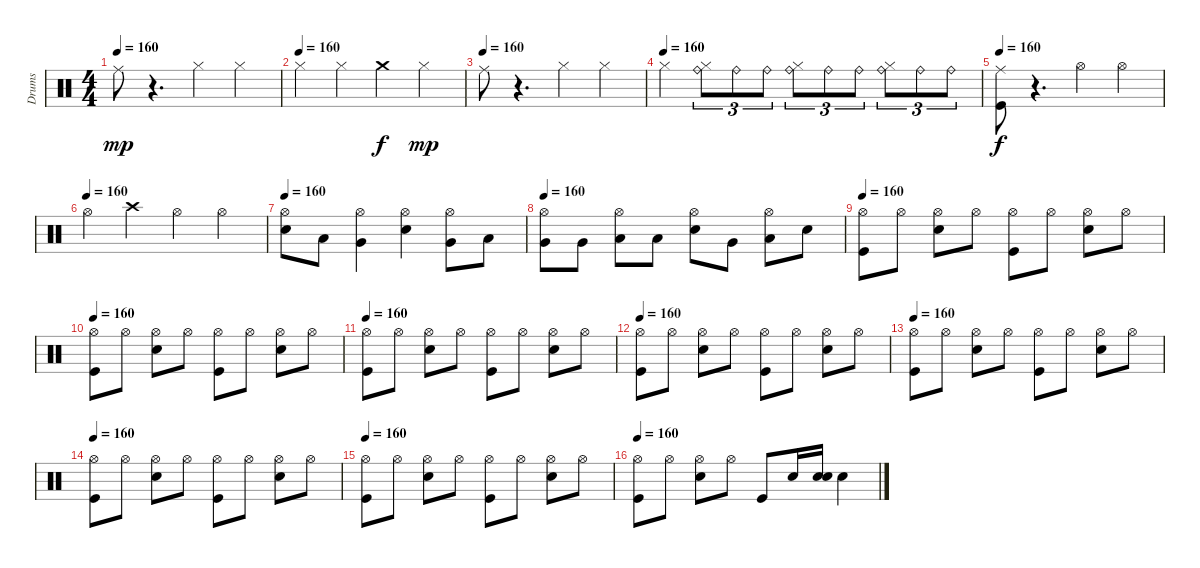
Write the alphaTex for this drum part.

\track ("Drums" "Drums") {instrument percussion}
\staff {score}
\articulation defaults
\ts (4 4)
\tempo 160
\clef neutral
\ks c "Ride (middle)".8{dy mp}
r.4{d} "Hi-Hat (closed)".4 "Hi-Hat (closed)".4 |
\tempo (160)
"Hi-Hat (closed)".4 "Hi-Hat (closed)".4 "Crash medium (hit)".4{dy f} "Hi-Hat (closed)".4{dy mp} |
\tempo (160)
"Ride (middle)".8 r.4{d} "Hi-Hat (closed)".4 "Hi-Hat (closed)".4 |
\tempo (160)
"Hi-Hat (closed)".4 ("Ride (bell)" "Hi-Hat (closed)").8{tu (3 2)} "Ride (bell)".8{tu (3 2)} "Ride (bell)".8{tu (3 2)} ("Ride (bell)" "Hi-Hat (closed)").8{tu (3 2)} "Ride (bell)".8{tu (3 2)} "Ride (bell)".8{tu (3 2)} ("Ride (bell)" "Hi-Hat (closed)").8{tu (3 2)} "Ride (bell)".8{tu (3 2)} "Ride (bell)".8{tu (3 2)} |
\tempo 160
("Ride (middle)" "Kick (hit)").8{dy f} r.4{d} "Hi-Hat (open)".4 "Hi-Hat (open)".4 |
\tempo (160)
"Hi-Hat (open)".4 "Crash high (hit)".4 "Hi-Hat (open)".4 "Hi-Hat (open)".4 |
\tempo 160
("Snare (hit) 2" "Hi-Hat (open)").8 "Low Tom (hit)".8 ("Very Low Tom (hit)" "Hi-Hat (open)").4 ("Snare (hit) 2" "Hi-Hat (open)").4 ("Very Low Tom (hit)" "Hi-Hat (open)").8 "Low Floor Tom (hit)".8 |
\tempo 160
("Hi-Hat (open)" "Very Low Tom (hit)").8 "Very Low Tom (hit)".8 ("Hi-Hat (open)" "Low Floor Tom (hit)").8 "Low Tom (hit)".8 ("Hi-Hat (open)" "Snare (hit) 2").8 "Very Low Tom (hit)".8 ("Hi-Hat (open)" "Low Floor Tom (hit)").8 "Snare (hit) 2".8 |
\tempo 160
("Hi-Hat (open)" "Kick (hit)").8 "Hi-Hat (open)".8 ("Hi-Hat (open)" "Snare (hit) 2").8 "Hi-Hat (open)".8 ("Hi-Hat (open)" "Kick (hit)").8 "Hi-Hat (open)".8 ("Hi-Hat (open)" "Snare (hit) 2").8 "Hi-Hat (open)".8 |
\tempo 160
("Hi-Hat (open)" "Kick (hit)").8 "Hi-Hat (open)".8 ("Hi-Hat (open)" "Snare (hit) 2").8 "Hi-Hat (open)".8 ("Hi-Hat (open)" "Kick (hit)").8 "Hi-Hat (open)".8 ("Hi-Hat (open)" "Snare (hit) 2").8 "Hi-Hat (open)".8 |
\tempo 160
("Hi-Hat (open)" "Kick (hit)").8 "Hi-Hat (open)".8 ("Hi-Hat (open)" "Snare (hit) 2").8 "Hi-Hat (open)".8 ("Hi-Hat (open)" "Kick (hit)").8 "Hi-Hat (open)".8 ("Hi-Hat (open)" "Snare (hit) 2").8 "Hi-Hat (open)".8 |
\tempo 160
("Hi-Hat (open)" "Kick (hit)").8 "Hi-Hat (open)".8 ("Hi-Hat (open)" "Snare (hit) 2").8 "Hi-Hat (open)".8 ("Hi-Hat (open)" "Kick (hit)").8 "Hi-Hat (open)".8 ("Hi-Hat (open)" "Snare (hit) 2").8 "Hi-Hat (open)".8 |
\tempo 160
("Hi-Hat (open)" "Kick (hit)").8 "Hi-Hat (open)".8 ("Hi-Hat (open)" "Snare (hit) 2").8 "Hi-Hat (open)".8 ("Hi-Hat (open)" "Kick (hit)").8 "Hi-Hat (open)".8 ("Hi-Hat (open)" "Snare (hit) 2").8 "Hi-Hat (open)".8 |
\tempo 160
("Hi-Hat (open)" "Kick (hit)").8 "Hi-Hat (open)".8 ("Hi-Hat (open)" "Snare (hit) 2").8 "Hi-Hat (open)".8 ("Hi-Hat (open)" "Kick (hit)").8 "Hi-Hat (open)".8 ("Hi-Hat (open)" "Snare (hit) 2").8 "Hi-Hat (open)".8 |
\tempo 160
("Hi-Hat (open)" "Kick (hit)").8 "Hi-Hat (open)".8 ("Hi-Hat (open)" "Snare (hit) 2").8 "Hi-Hat (open)".8 ("Hi-Hat (open)" "Kick (hit)").8 "Hi-Hat (open)".8 ("Hi-Hat (open)" "Snare (hit) 2").8 "Hi-Hat (open)".8 |
\tempo 160
("Kick (hit)" "Hi-Hat (open)").8 "Hi-Hat (open)".8 ("Snare (hit) 2" "Hi-Hat (open)").8 "Hi-Hat (open)".8 "Kick (hit)".8 "Snare (hit) 2".16 ("Snare (hit) 2" "Snare (hit) 2").16 "Snare (hit) 2".4
